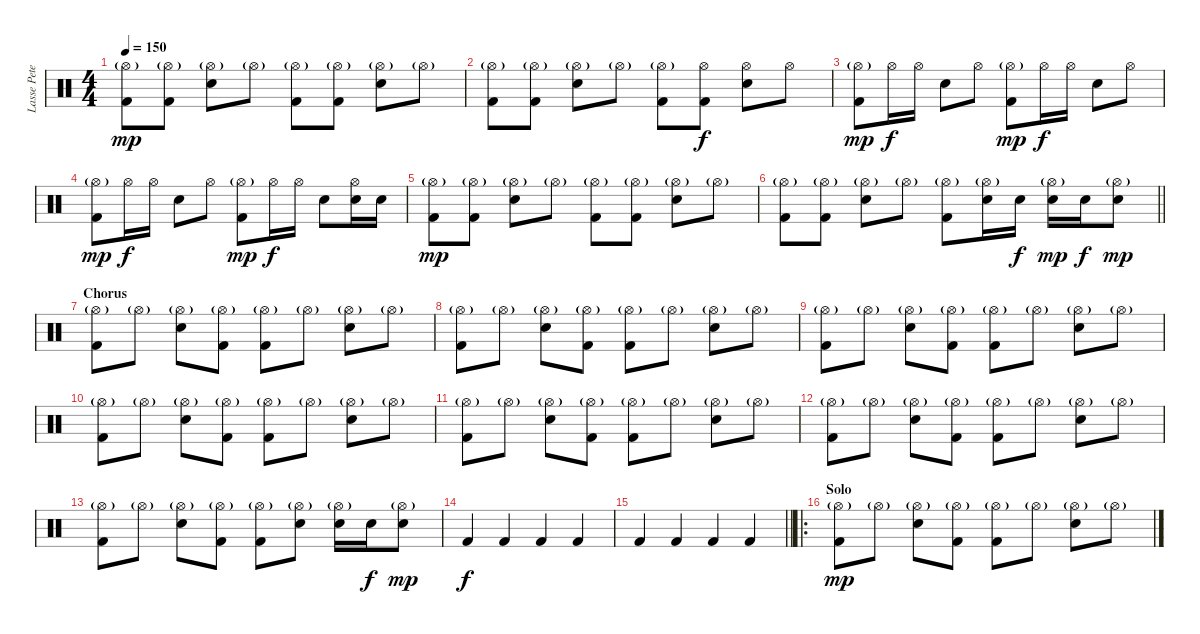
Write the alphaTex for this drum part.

\track ("Lasse Peterson" "Lasse Pete") {instrument percussion}
\staff {score}
\articulation defaults
\ts (4 4)
\tempo 150
\clef neutral
\ks c
("Kick (hit) 2" "Hi-Hat (open)"{g}).8{dy mp} ("Kick (hit) 2" "Hi-Hat (open)"{g}).8 ("Electric Snare (hit)" "Hi-Hat (open)"{g}).8 "Hi-Hat (open)"{g}.8 ("Kick (hit) 2" "Hi-Hat (open)"{g}).8 ("Kick (hit) 2" "Hi-Hat (open)"{g}).8 ("Electric Snare (hit)" "Hi-Hat (open)"{g}).8 "Hi-Hat (open)"{g}.8 |
("Kick (hit) 2" "Hi-Hat (open)"{g}).8 ("Kick (hit) 2" "Hi-Hat (open)"{g}).8 ("Electric Snare (hit)" "Hi-Hat (open)"{g}).8 "Hi-Hat (open)"{g}.8 ("Kick (hit) 2" "Hi-Hat (open)"{g}).8 ("Kick (hit) 2" "Hi-Hat (open)").8{dy f} ("Electric Snare (hit)" "Hi-Hat (open)").8 "Hi-Hat (open)".8 |
("Kick (hit) 2" "Hi-Hat (open)"{g}).8{dy mp} "Hi-Hat (open)".16{dy f} "Hi-Hat (open)".16 "Electric Snare (hit)".8 "Hi-Hat (open)".8 ("Kick (hit) 2" "Hi-Hat (open)"{g}).8{dy mp} "Hi-Hat (open)".16{dy f} "Hi-Hat (open)".16 "Electric Snare (hit)".8 "Hi-Hat (open)".8 |
("Kick (hit) 2" "Hi-Hat (open)"{g}).8{dy mp} "Hi-Hat (open)".16{dy f} "Hi-Hat (open)".16 "Electric Snare (hit)".8 "Hi-Hat (open)".8 ("Kick (hit) 2" "Hi-Hat (open)"{g}).8{dy mp} "Hi-Hat (open)".16{dy f} "Hi-Hat (open)".16 "Electric Snare (hit)".8 ("Electric Snare (hit)" "Hi-Hat (open)").16 "Electric Snare (hit)".16 |
("Kick (hit) 2" "Hi-Hat (open)"{g}).8{dy mp} ("Kick (hit) 2" "Hi-Hat (open)"{g}).8 ("Electric Snare (hit)" "Hi-Hat (open)"{g}).8 "Hi-Hat (open)"{g}.8 ("Kick (hit) 2" "Hi-Hat (open)"{g}).8 ("Kick (hit) 2" "Hi-Hat (open)"{g}).8 ("Electric Snare (hit)" "Hi-Hat (open)"{g}).8 "Hi-Hat (open)"{g}.8 |
\barLineRight lightlight
("Kick (hit) 2" "Hi-Hat (open)"{g}).8 ("Kick (hit) 2" "Hi-Hat (open)"{g}).8 ("Electric Snare (hit)" "Hi-Hat (open)"{g}).8 "Hi-Hat (open)"{g}.8 ("Kick (hit) 2" "Hi-Hat (open)"{g}).8 ("Electric Snare (hit)" "Hi-Hat (open)"{g}).16 "Electric Snare (hit)".16{dy f} ("Electric Snare (hit)" "Hi-Hat (open)"{g}).16{dy mp} "Electric Snare (hit)".16{dy f} ("Electric Snare (hit)" "Hi-Hat (open)"{g}).8{dy mp} |
\section ("" "Chorus")
("Kick (hit) 2" "Hi-Hat (open)"{g}).8 "Hi-Hat (open)"{g}.8 ("Electric Snare (hit)" "Hi-Hat (open)"{g}).8 ("Kick (hit) 2" "Hi-Hat (open)"{g}).8 ("Kick (hit) 2" "Hi-Hat (open)"{g}).8 "Hi-Hat (open)"{g}.8 ("Electric Snare (hit)" "Hi-Hat (open)"{g}).8 "Hi-Hat (open)"{g}.8 |
("Kick (hit) 2" "Hi-Hat (open)"{g}).8 "Hi-Hat (open)"{g}.8 ("Electric Snare (hit)" "Hi-Hat (open)"{g}).8 ("Kick (hit) 2" "Hi-Hat (open)"{g}).8 ("Kick (hit) 2" "Hi-Hat (open)"{g}).8 "Hi-Hat (open)"{g}.8 ("Electric Snare (hit)" "Hi-Hat (open)"{g}).8 "Hi-Hat (open)"{g}.8 |
("Kick (hit) 2" "Hi-Hat (open)"{g}).8 "Hi-Hat (open)"{g}.8 ("Electric Snare (hit)" "Hi-Hat (open)"{g}).8 ("Kick (hit) 2" "Hi-Hat (open)"{g}).8 ("Kick (hit) 2" "Hi-Hat (open)"{g}).8 "Hi-Hat (open)"{g}.8 ("Electric Snare (hit)" "Hi-Hat (open)"{g}).8 "Hi-Hat (open)"{g}.8 |
("Kick (hit) 2" "Hi-Hat (open)"{g}).8 "Hi-Hat (open)"{g}.8 ("Electric Snare (hit)" "Hi-Hat (open)"{g}).8 ("Kick (hit) 2" "Hi-Hat (open)"{g}).8 ("Kick (hit) 2" "Hi-Hat (open)"{g}).8 "Hi-Hat (open)"{g}.8 ("Electric Snare (hit)" "Hi-Hat (open)"{g}).8 "Hi-Hat (open)"{g}.8 |
("Kick (hit) 2" "Hi-Hat (open)"{g}).8 "Hi-Hat (open)"{g}.8 ("Electric Snare (hit)" "Hi-Hat (open)"{g}).8 ("Kick (hit) 2" "Hi-Hat (open)"{g}).8 ("Kick (hit) 2" "Hi-Hat (open)"{g}).8 "Hi-Hat (open)"{g}.8 ("Electric Snare (hit)" "Hi-Hat (open)"{g}).8 "Hi-Hat (open)"{g}.8 |
("Kick (hit) 2" "Hi-Hat (open)"{g}).8 "Hi-Hat (open)"{g}.8 ("Electric Snare (hit)" "Hi-Hat (open)"{g}).8 ("Kick (hit) 2" "Hi-Hat (open)"{g}).8 ("Kick (hit) 2" "Hi-Hat (open)"{g}).8 "Hi-Hat (open)"{g}.8 ("Electric Snare (hit)" "Hi-Hat (open)"{g}).8 "Hi-Hat (open)"{g}.8 |
("Kick (hit) 2" "Hi-Hat (open)"{g}).8 "Hi-Hat (open)"{g}.8 ("Electric Snare (hit)" "Hi-Hat (open)"{g}).8 ("Kick (hit) 2" "Hi-Hat (open)"{g}).8 ("Kick (hit) 2" "Hi-Hat (open)"{g}).8 ("Electric Snare (hit)" "Hi-Hat (open)"{g}).8 ("Electric Snare (hit)" "Hi-Hat (open)"{g}).16 "Electric Snare (hit)".16{dy f} ("Electric Snare (hit)" "Hi-Hat (open)"{g}).8{dy mp} |
"Kick (hit) 2".4{dy f} "Kick (hit) 2".4 "Kick (hit) 2".4 "Kick (hit) 2".4 |
\barLineRight lightlight "Kick (hit) 2".4 "Kick (hit) 2".4 "Kick (hit) 2".4 "Kick (hit) 2".4
|
\ro
\section ("" "Solo")
("Kick (hit) 2" "Hi-Hat (open)"{g}).8{dy mp} "Hi-Hat (open)"{g}.8 ("Electric Snare (hit)" "Hi-Hat (open)"{g}).8 ("Kick (hit) 2" "Hi-Hat (open)"{g}).8 ("Kick (hit) 2" "Hi-Hat (open)"{g}).8 "Hi-Hat (open)"{g}.8 ("Electric Snare (hit)" "Hi-Hat (open)"{g}).8 "Hi-Hat (open)"{g}.8
